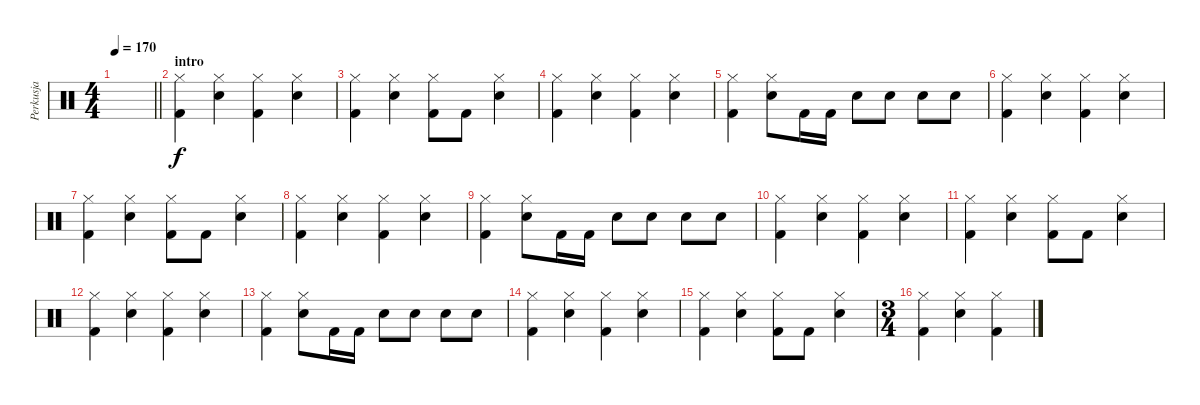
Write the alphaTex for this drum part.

\track ("Perkusja" "Perkusja") {instrument percussion}
\staff {score}
\articulation defaults
\ts (4 4)
\tempo 170
\clef neutral
\barLineRight lightlight
\ks c
|
\section ("" "intro")
("Hi-Hat (closed)" "Kick (hit) 2").4 ("Hi-Hat (closed)" "Snare (hit) 2").4 ("Hi-Hat (closed)" "Kick (hit) 2").4 ("Hi-Hat (closed)" "Snare (hit) 2").4 |
("Hi-Hat (closed)" "Kick (hit) 2").4 ("Hi-Hat (closed)" "Snare (hit) 2").4 ("Hi-Hat (closed)" "Kick (hit) 2").8 "Kick (hit) 2".8 ("Hi-Hat (closed)" "Snare (hit) 2").4 |
("Hi-Hat (closed)" "Kick (hit) 2").4 ("Hi-Hat (closed)" "Snare (hit) 2").4 ("Hi-Hat (closed)" "Kick (hit) 2").4 ("Hi-Hat (closed)" "Snare (hit) 2").4 |
("Hi-Hat (closed)" "Kick (hit) 2").4 ("Hi-Hat (closed)" "Snare (hit) 2").8 "Kick (hit) 2".16 "Kick (hit) 2".16 "Snare (hit) 2".8 "Snare (hit) 2".8 "Snare (hit) 2".8 "Snare (hit) 2".8 |
("Hi-Hat (closed)" "Kick (hit) 2").4 ("Hi-Hat (closed)" "Snare (hit) 2").4 ("Hi-Hat (closed)" "Kick (hit) 2").4 ("Hi-Hat (closed)" "Snare (hit) 2").4 |
("Hi-Hat (closed)" "Kick (hit) 2").4 ("Hi-Hat (closed)" "Snare (hit) 2").4 ("Hi-Hat (closed)" "Kick (hit) 2").8 "Kick (hit) 2".8 ("Hi-Hat (closed)" "Snare (hit) 2").4 |
("Hi-Hat (closed)" "Kick (hit) 2").4 ("Hi-Hat (closed)" "Snare (hit) 2").4 ("Hi-Hat (closed)" "Kick (hit) 2").4 ("Hi-Hat (closed)" "Snare (hit) 2").4 |
("Hi-Hat (closed)" "Kick (hit) 2").4 ("Hi-Hat (closed)" "Snare (hit) 2").8 "Kick (hit) 2".16 "Kick (hit) 2".16 "Snare (hit) 2".8 "Snare (hit) 2".8 "Snare (hit) 2".8 "Snare (hit) 2".8 |
("Hi-Hat (closed)" "Kick (hit) 2").4 ("Hi-Hat (closed)" "Snare (hit) 2").4 ("Hi-Hat (closed)" "Kick (hit) 2").4 ("Hi-Hat (closed)" "Snare (hit) 2").4 |
("Hi-Hat (closed)" "Kick (hit) 2").4 ("Hi-Hat (closed)" "Snare (hit) 2").4 ("Hi-Hat (closed)" "Kick (hit) 2").8 "Kick (hit) 2".8 ("Hi-Hat (closed)" "Snare (hit) 2").4 |
("Hi-Hat (closed)" "Kick (hit) 2").4 ("Hi-Hat (closed)" "Snare (hit) 2").4 ("Hi-Hat (closed)" "Kick (hit) 2").4 ("Hi-Hat (closed)" "Snare (hit) 2").4 |
("Hi-Hat (closed)" "Kick (hit) 2").4 ("Hi-Hat (closed)" "Snare (hit) 2").8 "Kick (hit) 2".16 "Kick (hit) 2".16 "Snare (hit) 2".8 "Snare (hit) 2".8 "Snare (hit) 2".8 "Snare (hit) 2".8 |
("Hi-Hat (closed)" "Kick (hit) 2").4 ("Hi-Hat (closed)" "Snare (hit) 2").4 ("Hi-Hat (closed)" "Kick (hit) 2").4 ("Hi-Hat (closed)" "Snare (hit) 2").4 |
("Hi-Hat (closed)" "Kick (hit) 2").4 ("Hi-Hat (closed)" "Snare (hit) 2").4 ("Hi-Hat (closed)" "Kick (hit) 2").8 "Kick (hit) 2".8 ("Hi-Hat (closed)" "Snare (hit) 2").4 |
\ts (3 4)
("Hi-Hat (closed)" "Kick (hit) 2").4 ("Hi-Hat (closed)" "Snare (hit) 2").4 ("Hi-Hat (closed)" "Kick (hit) 2").4
